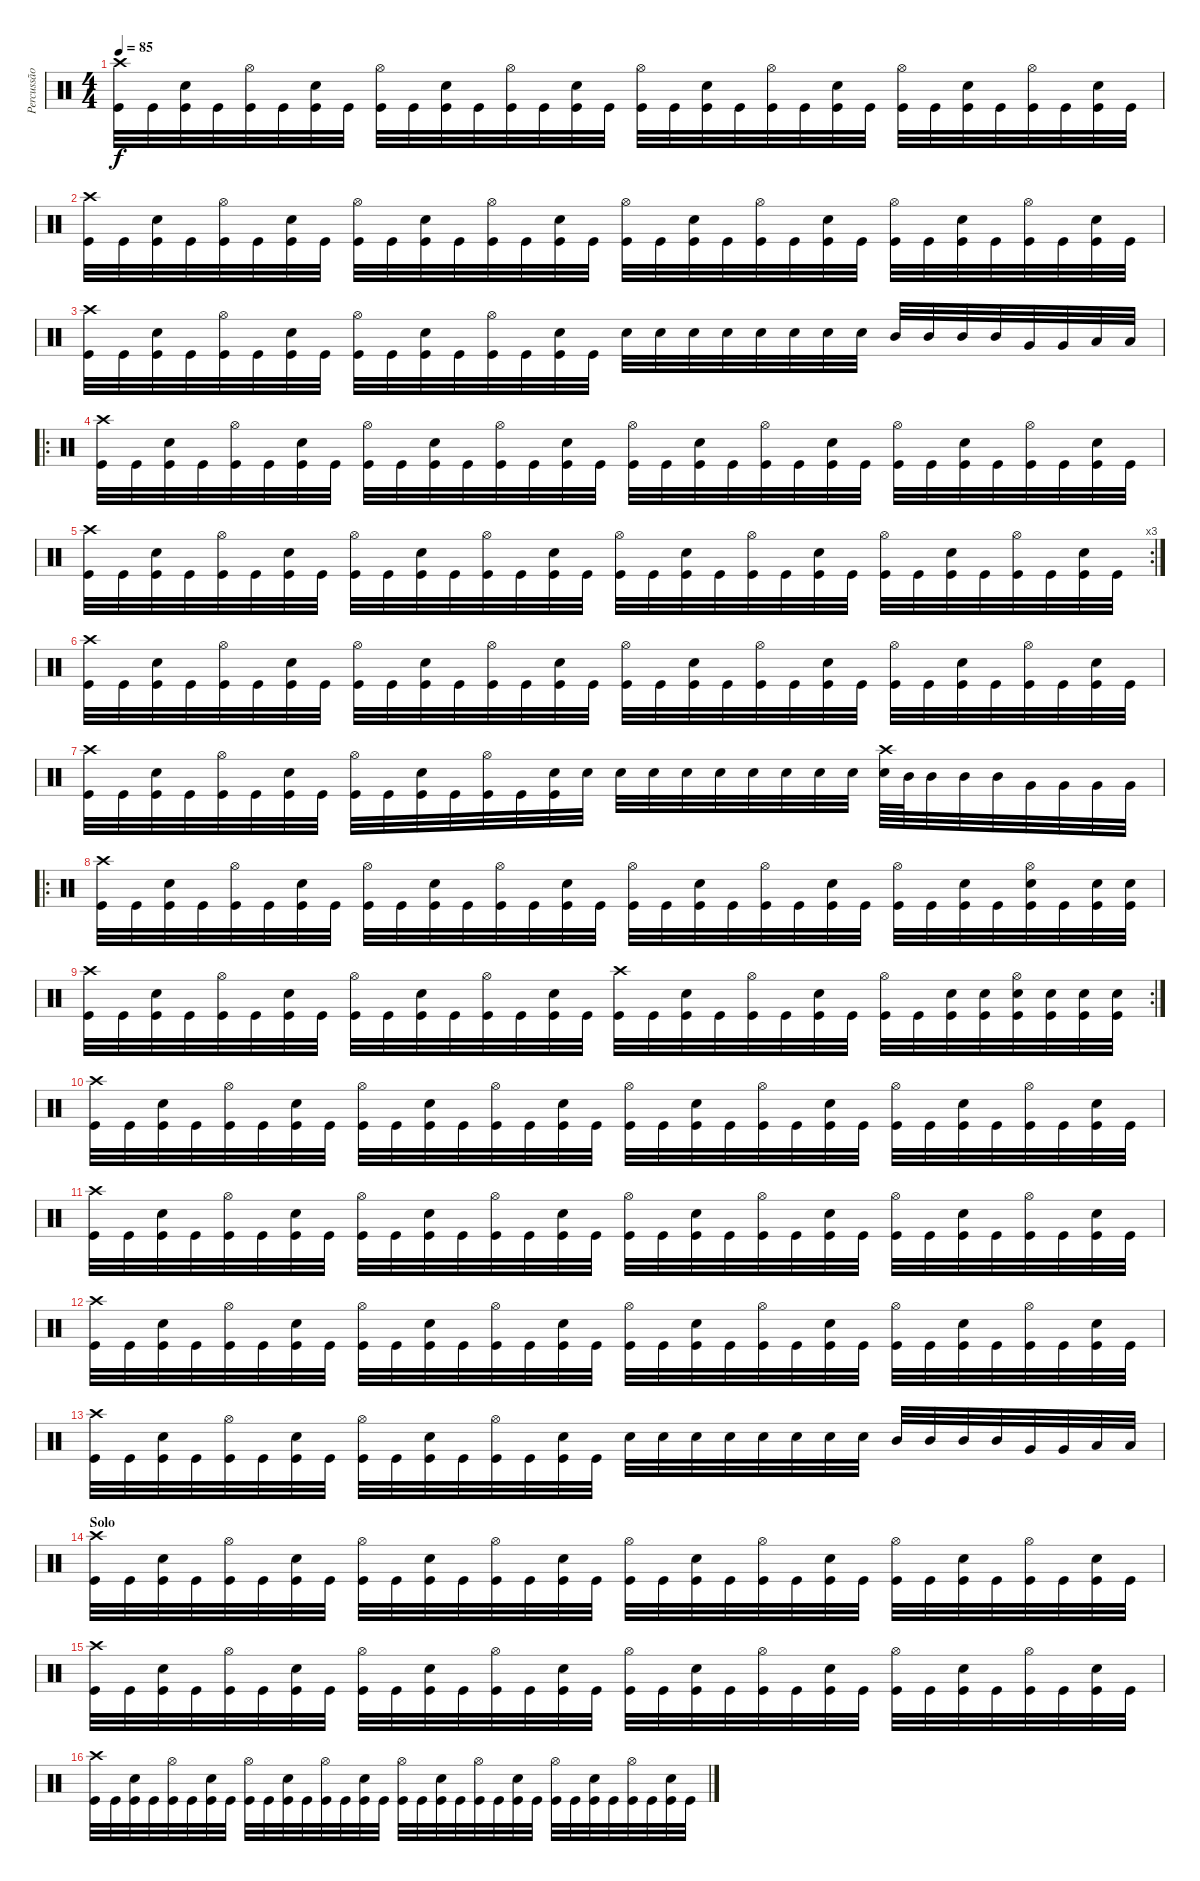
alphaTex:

\track ("Percussão" "Percussão") {instrument percussion}
\staff {score}
\articulation defaults
\ts (4 4)
\tempo 85
\clef neutral
\ks c
("Crash high (hit)" "Kick (hit)").32{dy f} "Kick (hit)".32 ("Snare (hit) 2" "Kick (hit)").32 "Kick (hit)".32 ("Hi-Hat (open)" "Kick (hit)").32 "Kick (hit)".32 ("Snare (hit) 2" "Kick (hit)").32 "Kick (hit)".32 ("Hi-Hat (open)" "Kick (hit)").32 "Kick (hit)".32 ("Snare (hit) 2" "Kick (hit)").32 "Kick (hit)".32 ("Hi-Hat (open)" "Kick (hit)").32 "Kick (hit)".32 ("Snare (hit) 2" "Kick (hit)").32 "Kick (hit)".32 ("Hi-Hat (open)" "Kick (hit)").32 "Kick (hit)".32 ("Snare (hit) 2" "Kick (hit)").32 "Kick (hit)".32 ("Hi-Hat (open)" "Kick (hit)").32 "Kick (hit)".32 ("Snare (hit) 2" "Kick (hit)").32 "Kick (hit)".32 ("Hi-Hat (open)" "Kick (hit)").32 "Kick (hit)".32 ("Snare (hit) 2" "Kick (hit)").32 "Kick (hit)".32 ("Hi-Hat (open)" "Kick (hit)").32 "Kick (hit)".32 ("Snare (hit) 2" "Kick (hit)").32 "Kick (hit)".32 |
("Crash high (hit)" "Kick (hit)").32 "Kick (hit)".32 ("Snare (hit) 2" "Kick (hit)").32 "Kick (hit)".32 ("Hi-Hat (open)" "Kick (hit)").32 "Kick (hit)".32 ("Snare (hit) 2" "Kick (hit)").32 "Kick (hit)".32 ("Hi-Hat (open)" "Kick (hit)").32 "Kick (hit)".32 ("Snare (hit) 2" "Kick (hit)").32 "Kick (hit)".32 ("Hi-Hat (open)" "Kick (hit)").32 "Kick (hit)".32 ("Snare (hit) 2" "Kick (hit)").32 "Kick (hit)".32 ("Hi-Hat (open)" "Kick (hit)").32 "Kick (hit)".32 ("Snare (hit) 2" "Kick (hit)").32 "Kick (hit)".32 ("Hi-Hat (open)" "Kick (hit)").32 "Kick (hit)".32 ("Snare (hit) 2" "Kick (hit)").32 "Kick (hit)".32 ("Hi-Hat (open)" "Kick (hit)").32 "Kick (hit)".32 ("Snare (hit) 2" "Kick (hit)").32 "Kick (hit)".32 ("Hi-Hat (open)" "Kick (hit)").32 "Kick (hit)".32 ("Snare (hit) 2" "Kick (hit)").32 "Kick (hit)".32 |
("Crash high (hit)" "Kick (hit)").32 "Kick (hit)".32 ("Snare (hit) 2" "Kick (hit)").32 "Kick (hit)".32 ("Hi-Hat (open)" "Kick (hit)").32 "Kick (hit)".32 ("Snare (hit) 2" "Kick (hit)").32 "Kick (hit)".32 ("Hi-Hat (open)" "Kick (hit)").32 "Kick (hit)".32 ("Snare (hit) 2" "Kick (hit)").32 "Kick (hit)".32 ("Hi-Hat (open)" "Kick (hit)").32 "Kick (hit)".32 ("Snare (hit) 2" "Kick (hit)").32 "Kick (hit)".32 "Snare (hit) 2".32 "Snare (hit) 2".32 "Snare (hit) 2".32 "Snare (hit) 2".32 "Snare (hit) 2".32 "Snare (hit) 2".32 "Snare (hit) 2".32 "Snare (hit) 2".32 "Mid Tom (hit)".32 "Mid Tom (hit)".32 "Mid Tom (hit)".32 "Mid Tom (hit)".32 "Very Low Tom (hit)".32 "Very Low Tom (hit)".32 "Low Floor Tom (hit)".32 "Low Floor Tom (hit)".32 |
\ro
("Crash high (hit)" "Kick (hit)").32 "Kick (hit)".32 ("Snare (hit) 2" "Kick (hit)").32 "Kick (hit)".32 ("Hi-Hat (open)" "Kick (hit)").32 "Kick (hit)".32 ("Snare (hit) 2" "Kick (hit)").32 "Kick (hit)".32 ("Hi-Hat (open)" "Kick (hit)").32 "Kick (hit)".32 ("Snare (hit) 2" "Kick (hit)").32 "Kick (hit)".32 ("Hi-Hat (open)" "Kick (hit)").32 "Kick (hit)".32 ("Snare (hit) 2" "Kick (hit)").32 "Kick (hit)".32 ("Hi-Hat (open)" "Kick (hit)").32 "Kick (hit)".32 ("Snare (hit) 2" "Kick (hit)").32 "Kick (hit)".32 ("Hi-Hat (open)" "Kick (hit)").32 "Kick (hit)".32 ("Snare (hit) 2" "Kick (hit)").32 "Kick (hit)".32 ("Hi-Hat (open)" "Kick (hit)").32 "Kick (hit)".32 ("Snare (hit) 2" "Kick (hit)").32 "Kick (hit)".32 ("Hi-Hat (open)" "Kick (hit)").32 "Kick (hit)".32 ("Snare (hit) 2" "Kick (hit)").32 "Kick (hit)".32 |
\rc 3
("Crash high (hit)" "Kick (hit)").32 "Kick (hit)".32 ("Snare (hit) 2" "Kick (hit)").32 "Kick (hit)".32 ("Hi-Hat (open)" "Kick (hit)").32 "Kick (hit)".32 ("Snare (hit) 2" "Kick (hit)").32 "Kick (hit)".32 ("Hi-Hat (open)" "Kick (hit)").32 "Kick (hit)".32 ("Snare (hit) 2" "Kick (hit)").32 "Kick (hit)".32 ("Hi-Hat (open)" "Kick (hit)").32 "Kick (hit)".32 ("Snare (hit) 2" "Kick (hit)").32 "Kick (hit)".32 ("Hi-Hat (open)" "Kick (hit)").32 "Kick (hit)".32 ("Snare (hit) 2" "Kick (hit)").32 "Kick (hit)".32 ("Hi-Hat (open)" "Kick (hit)").32 "Kick (hit)".32 ("Snare (hit) 2" "Kick (hit)").32 "Kick (hit)".32 ("Hi-Hat (open)" "Kick (hit)").32 "Kick (hit)".32 ("Snare (hit) 2" "Kick (hit)").32 "Kick (hit)".32 ("Hi-Hat (open)" "Kick (hit)").32 "Kick (hit)".32 ("Snare (hit) 2" "Kick (hit)").32 "Kick (hit)".32 |
("Crash high (hit)" "Kick (hit)").32 "Kick (hit)".32 ("Snare (hit) 2" "Kick (hit)").32 "Kick (hit)".32 ("Hi-Hat (open)" "Kick (hit)").32 "Kick (hit)".32 ("Snare (hit) 2" "Kick (hit)").32 "Kick (hit)".32 ("Hi-Hat (open)" "Kick (hit)").32 "Kick (hit)".32 ("Snare (hit) 2" "Kick (hit)").32 "Kick (hit)".32 ("Hi-Hat (open)" "Kick (hit)").32 "Kick (hit)".32 ("Snare (hit) 2" "Kick (hit)").32 "Kick (hit)".32 ("Hi-Hat (open)" "Kick (hit)").32 "Kick (hit)".32 ("Snare (hit) 2" "Kick (hit)").32 "Kick (hit)".32 ("Hi-Hat (open)" "Kick (hit)").32 "Kick (hit)".32 ("Snare (hit) 2" "Kick (hit)").32 "Kick (hit)".32 ("Hi-Hat (open)" "Kick (hit)").32 "Kick (hit)".32 ("Snare (hit) 2" "Kick (hit)").32 "Kick (hit)".32 ("Hi-Hat (open)" "Kick (hit)").32 "Kick (hit)".32 ("Snare (hit) 2" "Kick (hit)").32 "Kick (hit)".32 |
("Crash high (hit)" "Kick (hit)").32 "Kick (hit)".32 ("Snare (hit) 2" "Kick (hit)").32 "Kick (hit)".32 ("Hi-Hat (open)" "Kick (hit)").32 "Kick (hit)".32 ("Snare (hit) 2" "Kick (hit)").32 "Kick (hit)".32 ("Hi-Hat (open)" "Kick (hit)").32 "Kick (hit)".32 ("Snare (hit) 2" "Kick (hit)").32 "Kick (hit)".32 ("Hi-Hat (open)" "Kick (hit)").32 "Kick (hit)".32 ("Snare (hit) 2" "Kick (hit)").32 "Snare (hit) 2".32 "Snare (hit) 2".32 "Snare (hit) 2".32 "Snare (hit) 2".32 "Snare (hit) 2".32 "Snare (hit) 2".32 "Snare (hit) 2".32 "Snare (hit) 2".32 "Snare (hit) 2".32 ("Crash high (hit)" "Snare (hit) 2").64 "Mid Tom (hit)".64 "Mid Tom (hit)".32 "Mid Tom (hit)".32 "Mid Tom (hit)".32 "Very Low Tom (hit)".32 "Very Low Tom (hit)".32 "Very Low Tom (hit)".32 "Very Low Tom (hit)".32 |
\ro
("Crash high (hit)" "Kick (hit)").32 "Kick (hit)".32 ("Snare (hit) 2" "Kick (hit)").32 "Kick (hit)".32 ("Hi-Hat (open)" "Kick (hit)").32 "Kick (hit)".32 ("Snare (hit) 2" "Kick (hit)").32 "Kick (hit)".32 ("Hi-Hat (open)" "Kick (hit)").32 "Kick (hit)".32 ("Snare (hit) 2" "Kick (hit)").32 "Kick (hit)".32 ("Hi-Hat (open)" "Kick (hit)").32 "Kick (hit)".32 ("Snare (hit) 2" "Kick (hit)").32 "Kick (hit)".32 ("Hi-Hat (open)" "Kick (hit)").32 "Kick (hit)".32 ("Snare (hit) 2" "Kick (hit)").32 "Kick (hit)".32 ("Hi-Hat (open)" "Kick (hit)").32 "Kick (hit)".32 ("Snare (hit) 2" "Kick (hit)").32 "Kick (hit)".32 ("Hi-Hat (open)" "Kick (hit)").32 "Kick (hit)".32 ("Snare (hit) 2" "Kick (hit)").32 "Kick (hit)".32 ("Hi-Hat (open)" "Snare (hit) 2" "Kick (hit)").32 "Kick (hit)".32 ("Snare (hit) 2" "Kick (hit)").32 ("Snare (hit) 2" "Kick (hit)").32 |
\rc 2
("Crash high (hit)" "Kick (hit)").32 "Kick (hit)".32 ("Snare (hit) 2" "Kick (hit)").32 "Kick (hit)".32 ("Hi-Hat (open)" "Kick (hit)").32 "Kick (hit)".32 ("Snare (hit) 2" "Kick (hit)").32 "Kick (hit)".32 ("Hi-Hat (open)" "Kick (hit)").32 "Kick (hit)".32 ("Snare (hit) 2" "Kick (hit)").32 "Kick (hit)".32 ("Hi-Hat (open)" "Kick (hit)").32 "Kick (hit)".32 ("Snare (hit) 2" "Kick (hit)").32 "Kick (hit)".32 ("Crash high (hit)" "Kick (hit)").32 "Kick (hit)".32 ("Snare (hit) 2" "Kick (hit)").32 "Kick (hit)".32 ("Hi-Hat (open)" "Kick (hit)").32 "Kick (hit)".32 ("Snare (hit) 2" "Kick (hit)").32 "Kick (hit)".32 ("Hi-Hat (open)" "Kick (hit)").32 "Kick (hit)".32 ("Snare (hit) 2" "Kick (hit)").32 ("Snare (hit) 2" "Kick (hit)").32 ("Hi-Hat (open)" "Snare (hit) 2" "Kick (hit)").32 ("Snare (hit) 2" "Kick (hit)").32 ("Snare (hit) 2" "Kick (hit)").32 ("Snare (hit) 2" "Kick (hit)").32 |
("Crash high (hit)" "Kick (hit)").32 "Kick (hit)".32 ("Snare (hit) 2" "Kick (hit)").32 "Kick (hit)".32 ("Hi-Hat (open)" "Kick (hit)").32 "Kick (hit)".32 ("Snare (hit) 2" "Kick (hit)").32 "Kick (hit)".32 ("Hi-Hat (open)" "Kick (hit)").32 "Kick (hit)".32 ("Snare (hit) 2" "Kick (hit)").32 "Kick (hit)".32 ("Hi-Hat (open)" "Kick (hit)").32 "Kick (hit)".32 ("Snare (hit) 2" "Kick (hit)").32 "Kick (hit)".32 ("Hi-Hat (open)" "Kick (hit)").32 "Kick (hit)".32 ("Snare (hit) 2" "Kick (hit)").32 "Kick (hit)".32 ("Hi-Hat (open)" "Kick (hit)").32 "Kick (hit)".32 ("Snare (hit) 2" "Kick (hit)").32 "Kick (hit)".32 ("Hi-Hat (open)" "Kick (hit)").32 "Kick (hit)".32 ("Snare (hit) 2" "Kick (hit)").32 "Kick (hit)".32 ("Hi-Hat (open)" "Kick (hit)").32 "Kick (hit)".32 ("Snare (hit) 2" "Kick (hit)").32 "Kick (hit)".32 |
("Crash high (hit)" "Kick (hit)").32 "Kick (hit)".32 ("Snare (hit) 2" "Kick (hit)").32 "Kick (hit)".32 ("Hi-Hat (open)" "Kick (hit)").32 "Kick (hit)".32 ("Snare (hit) 2" "Kick (hit)").32 "Kick (hit)".32 ("Hi-Hat (open)" "Kick (hit)").32 "Kick (hit)".32 ("Snare (hit) 2" "Kick (hit)").32 "Kick (hit)".32 ("Hi-Hat (open)" "Kick (hit)").32 "Kick (hit)".32 ("Snare (hit) 2" "Kick (hit)").32 "Kick (hit)".32 ("Hi-Hat (open)" "Kick (hit)").32 "Kick (hit)".32 ("Snare (hit) 2" "Kick (hit)").32 "Kick (hit)".32 ("Hi-Hat (open)" "Kick (hit)").32 "Kick (hit)".32 ("Snare (hit) 2" "Kick (hit)").32 "Kick (hit)".32 ("Hi-Hat (open)" "Kick (hit)").32 "Kick (hit)".32 ("Snare (hit) 2" "Kick (hit)").32 "Kick (hit)".32 ("Hi-Hat (open)" "Kick (hit)").32 "Kick (hit)".32 ("Snare (hit) 2" "Kick (hit)").32 "Kick (hit)".32 |
("Crash high (hit)" "Kick (hit)").32 "Kick (hit)".32 ("Snare (hit) 2" "Kick (hit)").32 "Kick (hit)".32 ("Hi-Hat (open)" "Kick (hit)").32 "Kick (hit)".32 ("Snare (hit) 2" "Kick (hit)").32 "Kick (hit)".32 ("Hi-Hat (open)" "Kick (hit)").32 "Kick (hit)".32 ("Snare (hit) 2" "Kick (hit)").32 "Kick (hit)".32 ("Hi-Hat (open)" "Kick (hit)").32 "Kick (hit)".32 ("Snare (hit) 2" "Kick (hit)").32 "Kick (hit)".32 ("Hi-Hat (open)" "Kick (hit)").32 "Kick (hit)".32 ("Snare (hit) 2" "Kick (hit)").32 "Kick (hit)".32 ("Hi-Hat (open)" "Kick (hit)").32 "Kick (hit)".32 ("Snare (hit) 2" "Kick (hit)").32 "Kick (hit)".32 ("Hi-Hat (open)" "Kick (hit)").32 "Kick (hit)".32 ("Snare (hit) 2" "Kick (hit)").32 "Kick (hit)".32 ("Hi-Hat (open)" "Kick (hit)").32 "Kick (hit)".32 ("Snare (hit) 2" "Kick (hit)").32 "Kick (hit)".32 |
("Crash high (hit)" "Kick (hit)").32 "Kick (hit)".32 ("Snare (hit) 2" "Kick (hit)").32 "Kick (hit)".32 ("Hi-Hat (open)" "Kick (hit)").32 "Kick (hit)".32 ("Snare (hit) 2" "Kick (hit)").32 "Kick (hit)".32 ("Hi-Hat (open)" "Kick (hit)").32 "Kick (hit)".32 ("Snare (hit) 2" "Kick (hit)").32 "Kick (hit)".32 ("Hi-Hat (open)" "Kick (hit)").32 "Kick (hit)".32 ("Snare (hit) 2" "Kick (hit)").32 "Kick (hit)".32 "Snare (hit) 2".32 "Snare (hit) 2".32 "Snare (hit) 2".32 "Snare (hit) 2".32 "Snare (hit) 2".32 "Snare (hit) 2".32 "Snare (hit) 2".32 "Snare (hit) 2".32 "Mid Tom (hit)".32 "Mid Tom (hit)".32 "Mid Tom (hit)".32 "Mid Tom (hit)".32 "Very Low Tom (hit)".32 "Very Low Tom (hit)".32 "Low Floor Tom (hit)".32 "Low Floor Tom (hit)".32 |
\section ("" "Solo")
("Crash high (hit)" "Kick (hit)").32 "Kick (hit)".32 ("Snare (hit) 2" "Kick (hit)").32 "Kick (hit)".32 ("Hi-Hat (open)" "Kick (hit)").32 "Kick (hit)".32 ("Snare (hit) 2" "Kick (hit)").32 "Kick (hit)".32 ("Hi-Hat (open)" "Kick (hit)").32 "Kick (hit)".32 ("Snare (hit) 2" "Kick (hit)").32 "Kick (hit)".32 ("Hi-Hat (open)" "Kick (hit)").32 "Kick (hit)".32 ("Snare (hit) 2" "Kick (hit)").32 "Kick (hit)".32 ("Hi-Hat (open)" "Kick (hit)").32 "Kick (hit)".32 ("Snare (hit) 2" "Kick (hit)").32 "Kick (hit)".32 ("Hi-Hat (open)" "Kick (hit)").32 "Kick (hit)".32 ("Snare (hit) 2" "Kick (hit)").32 "Kick (hit)".32 ("Hi-Hat (open)" "Kick (hit)").32 "Kick (hit)".32 ("Snare (hit) 2" "Kick (hit)").32 "Kick (hit)".32 ("Hi-Hat (open)" "Kick (hit)").32 "Kick (hit)".32 ("Snare (hit) 2" "Kick (hit)").32 "Kick (hit)".32 |
("Crash high (hit)" "Kick (hit)").32 "Kick (hit)".32 ("Snare (hit) 2" "Kick (hit)").32 "Kick (hit)".32 ("Hi-Hat (open)" "Kick (hit)").32 "Kick (hit)".32 ("Snare (hit) 2" "Kick (hit)").32 "Kick (hit)".32 ("Hi-Hat (open)" "Kick (hit)").32 "Kick (hit)".32 ("Snare (hit) 2" "Kick (hit)").32 "Kick (hit)".32 ("Hi-Hat (open)" "Kick (hit)").32 "Kick (hit)".32 ("Snare (hit) 2" "Kick (hit)").32 "Kick (hit)".32 ("Hi-Hat (open)" "Kick (hit)").32 "Kick (hit)".32 ("Snare (hit) 2" "Kick (hit)").32 "Kick (hit)".32 ("Hi-Hat (open)" "Kick (hit)").32 "Kick (hit)".32 ("Snare (hit) 2" "Kick (hit)").32 "Kick (hit)".32 ("Hi-Hat (open)" "Kick (hit)").32 "Kick (hit)".32 ("Snare (hit) 2" "Kick (hit)").32 "Kick (hit)".32 ("Hi-Hat (open)" "Kick (hit)").32 "Kick (hit)".32 ("Snare (hit) 2" "Kick (hit)").32 "Kick (hit)".32 |
("Crash high (hit)" "Kick (hit)").32 "Kick (hit)".32 ("Snare (hit) 2" "Kick (hit)").32 "Kick (hit)".32 ("Hi-Hat (open)" "Kick (hit)").32 "Kick (hit)".32 ("Snare (hit) 2" "Kick (hit)").32 "Kick (hit)".32 ("Hi-Hat (open)" "Kick (hit)").32 "Kick (hit)".32 ("Snare (hit) 2" "Kick (hit)").32 "Kick (hit)".32 ("Hi-Hat (open)" "Kick (hit)").32 "Kick (hit)".32 ("Snare (hit) 2" "Kick (hit)").32 "Kick (hit)".32 ("Hi-Hat (open)" "Kick (hit)").32 "Kick (hit)".32 ("Snare (hit) 2" "Kick (hit)").32 "Kick (hit)".32 ("Hi-Hat (open)" "Kick (hit)").32 "Kick (hit)".32 ("Snare (hit) 2" "Kick (hit)").32 "Kick (hit)".32 ("Hi-Hat (open)" "Kick (hit)").32 "Kick (hit)".32 ("Snare (hit) 2" "Kick (hit)").32 "Kick (hit)".32 ("Hi-Hat (open)" "Kick (hit)").32 "Kick (hit)".32 ("Snare (hit) 2" "Kick (hit)").32 "Kick (hit)".32
